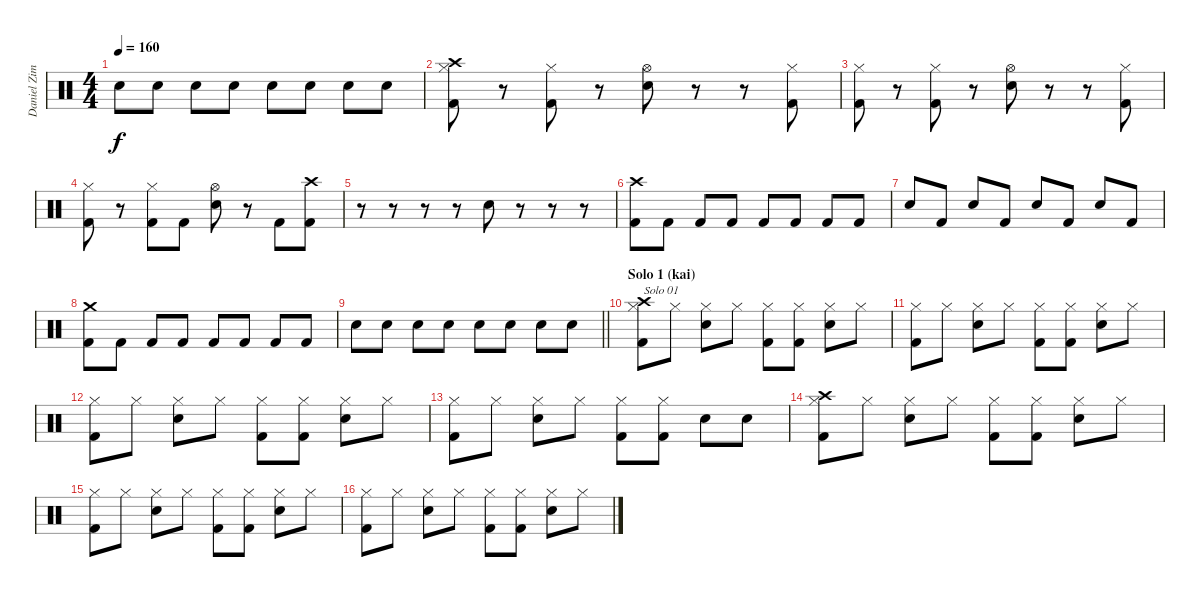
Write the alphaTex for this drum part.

\track ("Daniel Zimmermann" "Daniel Zim") {instrument percussion}
\staff {score}
\articulation defaults
\ts (4 4)
\tempo 160
\clef neutral
\ks c "Snare (hit) 2".8{dy f} "Snare (hit) 2".8 "Snare (hit) 2".8 "Snare (hit) 2".8 "Snare (hit) 2".8 "Snare (hit) 2".8 "Snare (hit) 2".8 "Snare (hit) 2".8
|
("Hi-Hat (closed)" "Kick (hit) 2" "Crash high (hit)").8 r.8 ("Hi-Hat (closed)" "Kick (hit) 2").8 r.8 ("Hi-Hat (open)" "Snare (hit) 2").8 r.8 r.8 ("Hi-Hat (closed)" "Kick (hit) 2").8 |
("Hi-Hat (closed)" "Kick (hit) 2").8 r.8 ("Hi-Hat (closed)" "Kick (hit) 2").8 r.8 ("Hi-Hat (open)" "Snare (hit) 2").8 r.8 r.8 ("Hi-Hat (closed)" "Kick (hit) 2").8 |
("Hi-Hat (closed)" "Kick (hit) 2").8 r.8 ("Hi-Hat (closed)" "Kick (hit) 2").8 "Kick (hit) 2".8 ("Hi-Hat (open)" "Snare (hit) 2").8 r.8 "Kick (hit) 2".8 ("Kick (hit) 2" "Crash high (hit)").8 |
r.8 r.8 r.8 r.8 "Snare (hit) 2".8 r.8 r.8 r.8 |
("Kick (hit) 2" "Crash high (hit)").8 "Kick (hit) 2".8 "Kick (hit) 2".8 "Kick (hit) 2".8 "Kick (hit) 2".8 "Kick (hit) 2".8 "Kick (hit) 2".8 "Kick (hit) 2".8 |
"Snare (hit) 2".8 "Kick (hit) 2".8 "Snare (hit) 2".8 "Kick (hit) 2".8 "Snare (hit) 2".8 "Kick (hit) 2".8 "Snare (hit) 2".8 "Kick (hit) 2".8 |
("Kick (hit) 2" "Crash medium (hit)").8 "Kick (hit) 2".8 "Kick (hit) 2".8 "Kick (hit) 2".8 "Kick (hit) 2".8 "Kick (hit) 2".8 "Kick (hit) 2".8 "Kick (hit) 2".8 |
\barLineRight lightlight "Snare (hit) 2".8 "Snare (hit) 2".8 "Snare (hit) 2".8 "Snare (hit) 2".8 "Snare (hit) 2".8 "Snare (hit) 2".8 "Snare (hit) 2".8 "Snare (hit) 2".8
|
\section ("" "Solo 1 (kai)")
("Hi-Hat (closed)" "Kick (hit) 2" "Crash high (hit)").8{txt "Solo 01"} "Hi-Hat (closed)".8 ("Hi-Hat (closed)" "Snare (hit) 2").8 "Hi-Hat (closed)".8 ("Hi-Hat (closed)" "Kick (hit) 2").8 ("Hi-Hat (closed)" "Kick (hit) 2").8 ("Hi-Hat (closed)" "Snare (hit) 2").8 "Hi-Hat (closed)".8 |
("Hi-Hat (closed)" "Kick (hit) 2").8 "Hi-Hat (closed)".8 ("Hi-Hat (closed)" "Snare (hit) 2").8 "Hi-Hat (closed)".8 ("Hi-Hat (closed)" "Kick (hit) 2").8 ("Hi-Hat (closed)" "Kick (hit) 2").8 ("Hi-Hat (closed)" "Snare (hit) 2").8 "Hi-Hat (closed)".8 |
("Hi-Hat (closed)" "Kick (hit) 2").8 "Hi-Hat (closed)".8 ("Hi-Hat (closed)" "Snare (hit) 2").8 "Hi-Hat (closed)".8 ("Hi-Hat (closed)" "Kick (hit) 2").8 ("Hi-Hat (closed)" "Kick (hit) 2").8 ("Hi-Hat (closed)" "Snare (hit) 2").8 "Hi-Hat (closed)".8 |
("Hi-Hat (closed)" "Kick (hit) 2").8 "Hi-Hat (closed)".8 ("Hi-Hat (closed)" "Snare (hit) 2").8 "Hi-Hat (closed)".8 ("Hi-Hat (closed)" "Kick (hit) 2").8 ("Hi-Hat (closed)" "Kick (hit) 2").8 "Snare (hit) 2".8 "Snare (hit) 2".8 |
("Hi-Hat (closed)" "Kick (hit) 2" "Crash high (hit)").8 "Hi-Hat (closed)".8 ("Hi-Hat (closed)" "Snare (hit) 2").8 "Hi-Hat (closed)".8 ("Hi-Hat (closed)" "Kick (hit) 2").8 ("Hi-Hat (closed)" "Kick (hit) 2").8 ("Hi-Hat (closed)" "Snare (hit) 2").8 "Hi-Hat (closed)".8 |
("Hi-Hat (closed)" "Kick (hit) 2").8 "Hi-Hat (closed)".8 ("Hi-Hat (closed)" "Snare (hit) 2").8 "Hi-Hat (closed)".8 ("Hi-Hat (closed)" "Kick (hit) 2").8 ("Hi-Hat (closed)" "Kick (hit) 2").8 ("Hi-Hat (closed)" "Snare (hit) 2").8 "Hi-Hat (closed)".8 |
("Hi-Hat (closed)" "Kick (hit) 2").8 "Hi-Hat (closed)".8 ("Hi-Hat (closed)" "Snare (hit) 2").8 "Hi-Hat (closed)".8 ("Hi-Hat (closed)" "Kick (hit) 2").8 ("Hi-Hat (closed)" "Kick (hit) 2").8 ("Hi-Hat (closed)" "Snare (hit) 2").8 "Hi-Hat (closed)".8
